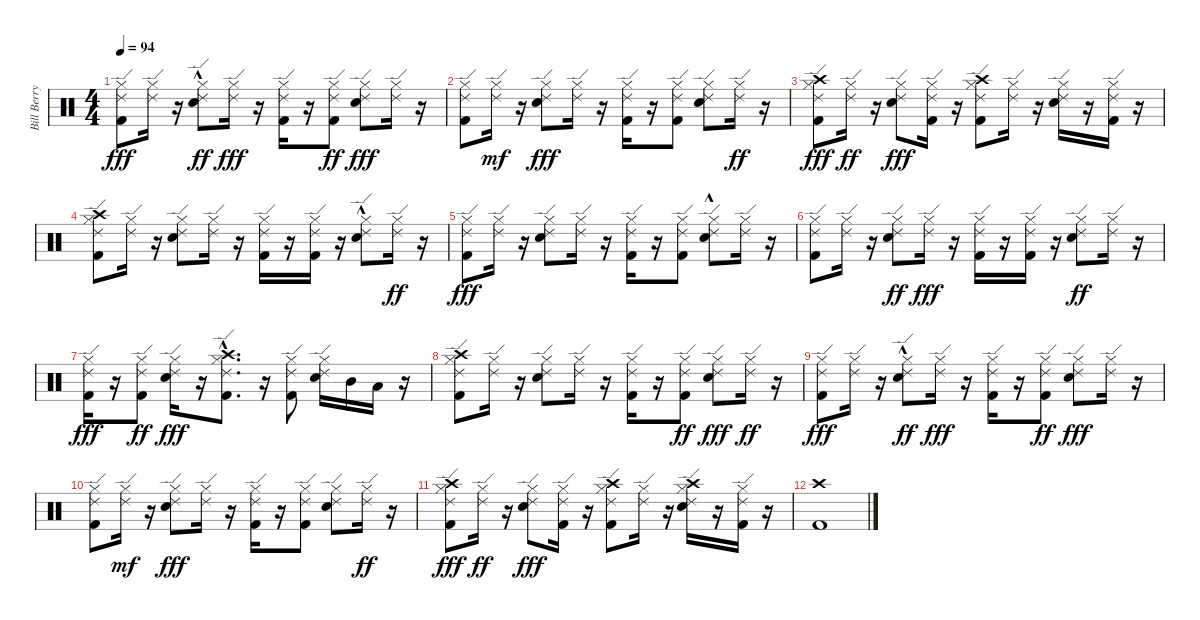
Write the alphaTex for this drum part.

\track ("Bill Berry (Drums)" "Bill Berry") {instrument percussion}
\staff {score}
\articulation defaults
\ts (4 4)
\tempo 94
\clef neutral
\ks c
("Kick (hit) 2" "Ride (edge) 2" "Hi-Hat (closed)").8{dy fff} ("Ride (edge) 2" "Hi-Hat (closed)").16 r.16 ("Electric Snare (hit)"{hac} "Hi-Hat (closed)" "Ride (edge) 2").8{dy ff} ("Ride (edge) 2" "Hi-Hat (closed)").16{dy fff} r.16 ("Kick (hit) 2" "Ride (edge) 2" "Hi-Hat (closed)").16 r.16 ("Kick (hit) 2" "Hi-Hat (closed)" "Ride (edge) 2").8{dy ff} ("Electric Snare (hit)" "Ride (edge) 2" "Hi-Hat (closed)").8{dy fff} ("Ride (edge) 2" "Hi-Hat (closed)").16 r.16 |
("Kick (hit) 2" "Ride (edge) 2" "Hi-Hat (closed)").8 ("Hi-Hat (closed)" "Ride (edge) 2").16{dy mf} r.16 ("Electric Snare (hit)" "Ride (edge) 2" "Hi-Hat (closed)").8{dy fff} ("Ride (edge) 2" "Hi-Hat (closed)").16 r.16 ("Kick (hit) 2" "Ride (edge) 2" "Hi-Hat (closed)").16 r.16 ("Ride (edge) 2" "Kick (hit) 2" "Hi-Hat (closed)").8 ("Hi-Hat (closed)" "Ride (edge) 2" "Electric Snare (hit)").8 ("Hi-Hat (closed)" "Ride (edge) 2").16{dy ff} r.16 |
("Ride (edge) 2" "Kick (hit) 2" "Hi-Hat (closed)" "Crash high (hit)").8{dy fff} ("Ride (edge) 2" "Hi-Hat (closed)").16{dy ff} r.16 ("Ride (edge) 2" "Electric Snare (hit)" "Hi-Hat (closed)").8{dy fff} ("Kick (hit) 2" "Hi-Hat (closed)" "Ride (edge) 2").16 r.16 ("Kick (hit) 2" "Hi-Hat (closed)" "Ride (edge) 2" "Crash high (hit)").8 ("Hi-Hat (closed)" "Ride (edge) 2").16 r.16 ("Electric Snare (hit)" "Ride (edge) 2" "Hi-Hat (closed)").16 r.16 ("Kick (hit) 2" "Hi-Hat (closed)" "Ride (edge) 2").16 r.16 |
("Kick (hit) 2" "Crash high (hit)" "Hi-Hat (closed)" "Ride (edge) 2").8 ("Hi-Hat (closed)" "Ride (edge) 2").16 r.16 ("Electric Snare (hit)" "Ride (edge) 2" "Hi-Hat (closed)").8 ("Hi-Hat (closed)" "Ride (edge) 2").16 r.16 ("Kick (hit) 2" "Ride (edge) 2" "Hi-Hat (closed)").16 r.16 ("Kick (hit) 2" "Ride (edge) 2" "Hi-Hat (closed)").16 r.16 ("Electric Snare (hit)"{hac} "Ride (edge) 2" "Hi-Hat (closed)").8 ("Hi-Hat (closed)" "Ride (edge) 2").16{dy ff} r.16 |
("Kick (hit) 2" "Hi-Hat (closed)" "Ride (edge) 2").8{dy fff} ("Ride (edge) 2" "Hi-Hat (closed)").16 r.16 ("Electric Snare (hit)" "Ride (edge) 2" "Hi-Hat (closed)").8 ("Hi-Hat (closed)" "Ride (edge) 2").16 r.16 ("Kick (hit) 2" "Ride (edge) 2" "Hi-Hat (closed)").16 r.16 ("Ride (edge) 2" "Kick (hit) 2" "Hi-Hat (closed)").8 ("Hi-Hat (closed)" "Ride (edge) 2" "Electric Snare (hit)"{hac}).8 ("Hi-Hat (closed)" "Ride (edge) 2").16 r.16 |
("Ride (edge) 2" "Kick (hit) 2" "Hi-Hat (closed)").8 ("Hi-Hat (closed)" "Ride (edge) 2").16 r.16 ("Ride (edge) 2" "Electric Snare (hit)" "Hi-Hat (closed)").8{dy ff} ("Ride (edge) 2" "Hi-Hat (closed)").16{dy fff} r.16 ("Kick (hit) 2" "Ride (edge) 2" "Hi-Hat (closed)").16 r.16 ("Kick (hit) 2" "Ride (edge) 2" "Hi-Hat (closed)").16 r.16 ("Electric Snare (hit)" "Ride (edge) 2" "Hi-Hat (closed)").8{dy ff} ("Ride (edge) 2" "Hi-Hat (closed)").16 r.16 |
("Kick (hit) 2" "Ride (edge) 2" "Hi-Hat (closed)").16{dy fff} r.16 ("Kick (hit) 2" "Hi-Hat (closed)" "Ride (edge) 2").8{dy ff} ("Electric Snare (hit)" "Ride (edge) 2" "Hi-Hat (closed)").16{dy fff} r.16 ("Kick (hit) 2"{hac} "Ride (edge) 2" "Hi-Hat (closed)" "Crash high (hit)").8{d} r.16 ("Kick (hit) 2" "Ride (edge) 2" "Hi-Hat (closed)").8 ("Electric Snare (hit)" "Hi-Hat (closed)" "Ride (edge) 2").16 "Mid Tom (hit)".16 "Low Tom (hit)".16 r.16 |
("Kick (hit) 2" "Hi-Hat (closed)" "Ride (edge) 2" "Crash high (hit)").8 ("Ride (edge) 2" "Hi-Hat (closed)").16 r.16 ("Electric Snare (hit)" "Ride (edge) 2" "Hi-Hat (closed)").8 ("Ride (edge) 2" "Hi-Hat (closed)").16 r.16 ("Kick (hit) 2" "Ride (edge) 2" "Hi-Hat (closed)").16 r.16 ("Kick (hit) 2" "Hi-Hat (closed)" "Ride (edge) 2").8{dy ff} ("Electric Snare (hit)" "Ride (edge) 2" "Hi-Hat (closed)").8{dy fff} ("Hi-Hat (closed)" "Ride (edge) 2").16{dy ff} r.16 |
("Kick (hit) 2" "Ride (edge) 2" "Hi-Hat (closed)").8{dy fff} ("Ride (edge) 2" "Hi-Hat (closed)").16 r.16 ("Electric Snare (hit)"{hac} "Hi-Hat (closed)" "Ride (edge) 2").8{dy ff} ("Ride (edge) 2" "Hi-Hat (closed)").16{dy fff} r.16 ("Kick (hit) 2" "Ride (edge) 2" "Hi-Hat (closed)").16 r.16 ("Kick (hit) 2" "Hi-Hat (closed)" "Ride (edge) 2").8{dy ff} ("Electric Snare (hit)" "Ride (edge) 2" "Hi-Hat (closed)").8{dy fff} ("Ride (edge) 2" "Hi-Hat (closed)").16 r.16 |
("Kick (hit) 2" "Ride (edge) 2" "Hi-Hat (closed)").8 ("Hi-Hat (closed)" "Ride (edge) 2").16{dy mf} r.16 ("Electric Snare (hit)" "Ride (edge) 2" "Hi-Hat (closed)").8{dy fff} ("Ride (edge) 2" "Hi-Hat (closed)").16 r.16 ("Kick (hit) 2" "Ride (edge) 2" "Hi-Hat (closed)").16 r.16 ("Ride (edge) 2" "Kick (hit) 2" "Hi-Hat (closed)").8 ("Hi-Hat (closed)" "Ride (edge) 2" "Electric Snare (hit)").8 ("Hi-Hat (closed)" "Ride (edge) 2").16{dy ff} r.16 |
("Ride (edge) 2" "Kick (hit) 2" "Hi-Hat (closed)" "Crash high (hit)").8{dy fff} ("Ride (edge) 2" "Hi-Hat (closed)").16{dy ff} r.16 ("Ride (edge) 2" "Electric Snare (hit)" "Hi-Hat (closed)").8{dy fff} ("Kick (hit) 2" "Hi-Hat (closed)" "Ride (edge) 2").16 r.16 ("Kick (hit) 2" "Hi-Hat (closed)" "Ride (edge) 2" "Crash high (hit)").8 ("Hi-Hat (closed)" "Ride (edge) 2").16 r.16 ("Electric Snare (hit)" "Ride (edge) 2" "Hi-Hat (closed)" "Crash high (hit)").16 r.16 ("Kick (hit) 2" "Hi-Hat (closed)" "Ride (edge) 2").16 r.16 |
("Crash high (hit)" "Kick (hit) 2").1
